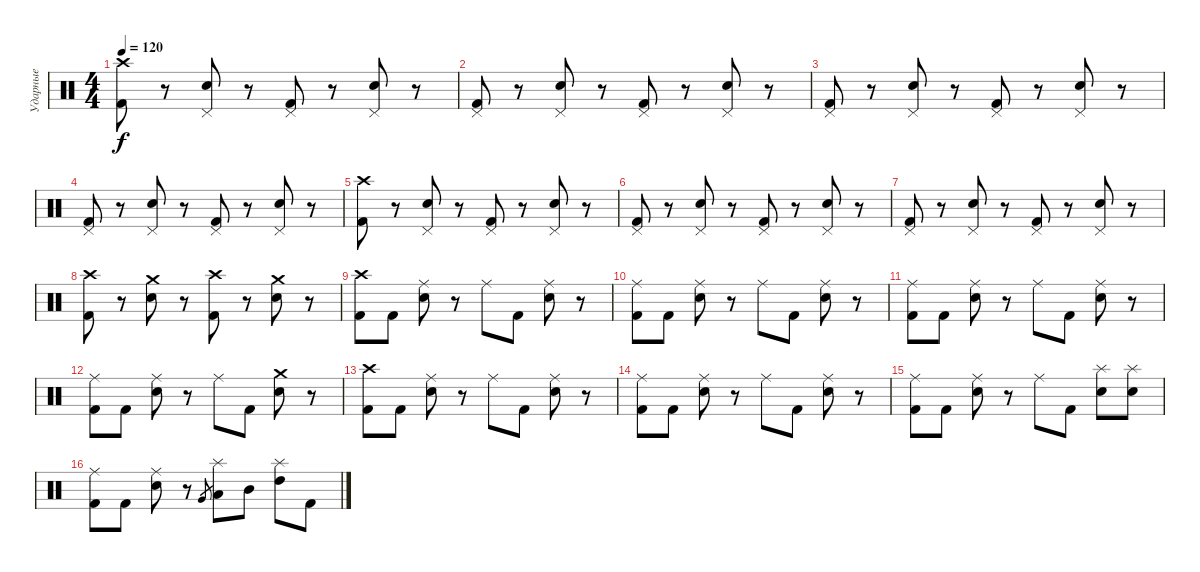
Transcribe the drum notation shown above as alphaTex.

\track ("Ударные" "Ударные") {instrument percussion}
\staff {score}
\articulation defaults
\ts (4 4)
\tempo 120
\clef neutral
\ks c
("Crash high (hit)" "Kick (hit) 2").8{dy f} r.8 ("Pedal Hi-Hat (hit)" "Electric Snare (hit)").8 r.8 ("Pedal Hi-Hat (hit)" "Kick (hit) 2").8 r.8 ("Pedal Hi-Hat (hit)" "Electric Snare (hit)").8 r.8 |
("Pedal Hi-Hat (hit)" "Kick (hit) 2").8 r.8 ("Pedal Hi-Hat (hit)" "Electric Snare (hit)").8 r.8 ("Pedal Hi-Hat (hit)" "Kick (hit) 2").8 r.8 ("Pedal Hi-Hat (hit)" "Electric Snare (hit)").8 r.8 |
("Pedal Hi-Hat (hit)" "Kick (hit) 2").8 r.8 ("Pedal Hi-Hat (hit)" "Electric Snare (hit)").8 r.8 ("Pedal Hi-Hat (hit)" "Kick (hit) 2").8 r.8 ("Pedal Hi-Hat (hit)" "Electric Snare (hit)").8 r.8 |
("Pedal Hi-Hat (hit)" "Kick (hit) 2").8 r.8 ("Pedal Hi-Hat (hit)" "Electric Snare (hit)").8 r.8 ("Pedal Hi-Hat (hit)" "Kick (hit) 2").8 r.8 ("Pedal Hi-Hat (hit)" "Electric Snare (hit)").8 r.8 |
("Crash high (hit)" "Kick (hit) 2").8 r.8 ("Pedal Hi-Hat (hit)" "Electric Snare (hit)").8 r.8 ("Pedal Hi-Hat (hit)" "Kick (hit) 2").8 r.8 ("Pedal Hi-Hat (hit)" "Electric Snare (hit)").8 r.8 |
("Pedal Hi-Hat (hit)" "Kick (hit) 2").8 r.8 ("Pedal Hi-Hat (hit)" "Electric Snare (hit)").8 r.8 ("Pedal Hi-Hat (hit)" "Kick (hit) 2").8 r.8 ("Pedal Hi-Hat (hit)" "Electric Snare (hit)").8 r.8 |
("Pedal Hi-Hat (hit)" "Kick (hit) 2").8 r.8 ("Pedal Hi-Hat (hit)" "Electric Snare (hit)").8 r.8 ("Pedal Hi-Hat (hit)" "Kick (hit) 2").8 r.8 ("Pedal Hi-Hat (hit)" "Electric Snare (hit)").8 r.8 |
("Crash high (hit)" "Kick (hit) 2").8 r.8 ("Crash medium (hit)" "Electric Snare (hit)").8 r.8 ("Crash high (hit)" "Kick (hit) 2").8 r.8 ("Crash medium (hit)" "Electric Snare (hit)").8 r.8 |
("Crash high (hit)" "Kick (hit) 2").8 "Kick (hit) 2".8 ("Ride (middle)" "Electric Snare (hit)").8 r.8 "Ride (middle)".8 "Kick (hit) 2".8 ("Ride (middle)" "Electric Snare (hit)").8 r.8 |
("Ride (middle)" "Kick (hit) 2").8 "Kick (hit) 2".8 ("Ride (middle)" "Electric Snare (hit)").8 r.8 "Ride (middle)".8 "Kick (hit) 2".8 ("Ride (middle)" "Electric Snare (hit)").8 r.8 |
("Ride (middle)" "Kick (hit) 2").8 "Kick (hit) 2".8 ("Ride (middle)" "Electric Snare (hit)").8 r.8 "Ride (middle)".8 "Kick (hit) 2".8 ("Ride (middle)" "Electric Snare (hit)").8 r.8 |
("Ride (middle)" "Kick (hit) 2").8 "Kick (hit) 2".8 ("Ride (middle)" "Electric Snare (hit)").8 r.8 "Ride (middle)".8 "Kick (hit) 2".8 ("Crash medium (hit)" "Electric Snare (hit)").8 r.8 |
("Crash high (hit)" "Kick (hit) 2").8 "Kick (hit) 2".8 ("Ride (middle)" "Electric Snare (hit)").8 r.8 "Ride (middle)".8 "Kick (hit) 2".8 ("Ride (middle)" "Electric Snare (hit)").8 r.8 |
("Ride (middle)" "Kick (hit) 2").8 "Kick (hit) 2".8 ("Ride (middle)" "Electric Snare (hit)").8 r.8 "Ride (middle)".8 "Kick (hit) 2".8 ("Ride (middle)" "Electric Snare (hit)").8 r.8 |
("Ride (middle)" "Kick (hit) 2").8 "Kick (hit) 2".8 ("Ride (middle)" "Electric Snare (hit)").8 r.8 "Ride (middle)".8 "Kick (hit) 2".8 ("Splash (hit)" "Electric Snare (hit)").8 ("Splash (hit)" "Electric Snare (hit)").8 |
("Ride (middle)" "Kick (hit) 2").8 "Kick (hit) 2".8 ("Ride (middle)" "Electric Snare (hit)").8 r.8 "Very Low Tom (hit)".8{gr} ("Splash (hit)" "Low Tom (hit)").8 "Mid Tom (hit)".8 ("Splash (hit)" "High Tom (hit)").8 "Kick (hit) 2".8
